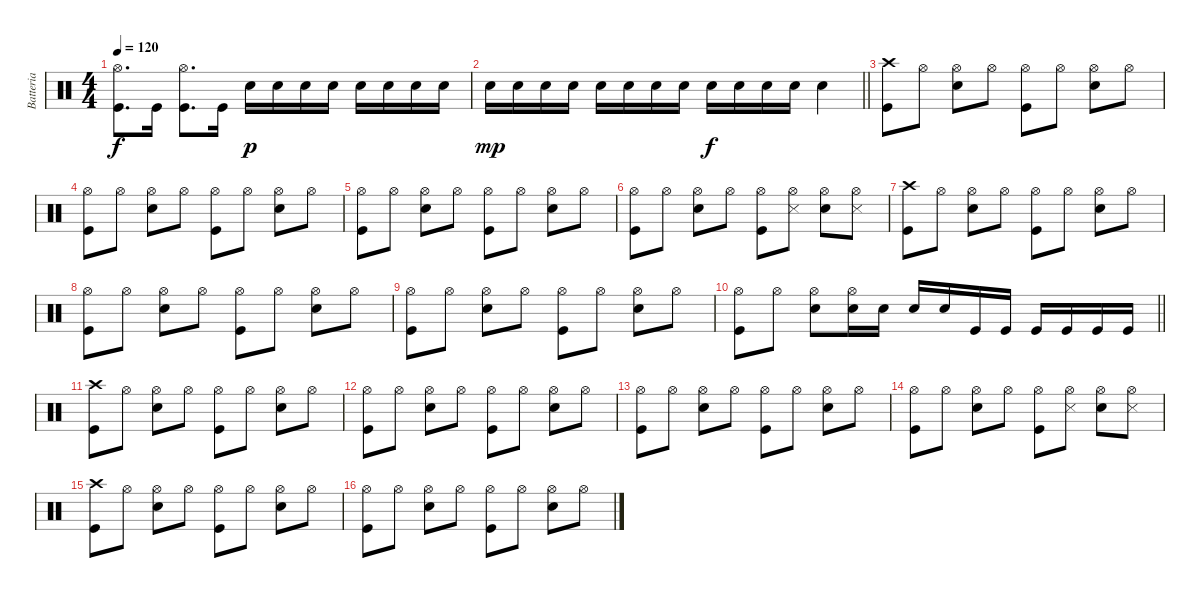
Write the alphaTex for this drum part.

\track ("Batteria" "Batteria") {instrument percussion}
\staff {score}
\articulation defaults
\ts (4 4)
\tempo 120
\clef neutral
\ks c
("Kick (hit)" "Hi-Hat (open)").8{d dy f} "Kick (hit)".16 ("Kick (hit)" "Hi-Hat (open)").8{d} "Kick (hit)".16 "Snare (hit) 2".16{dy p} "Snare (hit) 2".16 "Snare (hit) 2".16 "Snare (hit) 2".16 "Snare (hit) 2".16 "Snare (hit) 2".16 "Snare (hit) 2".16 "Snare (hit) 2".16 |
\barLineRight lightlight "Snare (hit) 2".16{dy mp} "Snare (hit) 2".16 "Snare (hit) 2".16 "Snare (hit) 2".16 "Snare (hit) 2".16 "Snare (hit) 2".16 "Snare (hit) 2".16 "Snare (hit) 2".16 "Snare (hit) 2".16{dy f} "Snare (hit) 2".16 "Snare (hit) 2".16 "Snare (hit) 2".16 "Snare (hit) 2".4
|
("Kick (hit)" "Crash high (hit)").8 "Hi-Hat (open)".8 ("Snare (hit) 2" "Hi-Hat (open)").8 "Hi-Hat (open)".8 ("Kick (hit)" "Hi-Hat (open)").8 "Hi-Hat (open)".8 ("Snare (hit) 2" "Hi-Hat (open)").8 "Hi-Hat (open)".8 |
("Kick (hit)" "Hi-Hat (open)").8 "Hi-Hat (open)".8 ("Snare (hit) 2" "Hi-Hat (open)").8 "Hi-Hat (open)".8 ("Kick (hit)" "Hi-Hat (open)").8 "Hi-Hat (open)".8 ("Snare (hit) 2" "Hi-Hat (open)").8 "Hi-Hat (open)".8 |
("Kick (hit)" "Hi-Hat (open)").8 "Hi-Hat (open)".8 ("Snare (hit) 2" "Hi-Hat (open)").8 "Hi-Hat (open)".8 ("Kick (hit)" "Hi-Hat (open)").8 "Hi-Hat (open)".8 ("Snare (hit) 2" "Hi-Hat (open)").8 "Hi-Hat (open)".8 |
("Kick (hit)" "Hi-Hat (open)").8 "Hi-Hat (open)".8 ("Snare (hit) 2" "Hi-Hat (open)").8 "Hi-Hat (open)".8 ("Kick (hit)" "Hi-Hat (open)").8 ("Hi-Hat (open)" "Snare (side stick) 3").8 ("Snare (hit) 2" "Hi-Hat (open)").8 ("Hi-Hat (open)" "Snare (side stick) 3").8 |
("Kick (hit)" "Crash high (hit)").8 "Hi-Hat (open)".8 ("Snare (hit) 2" "Hi-Hat (open)").8 "Hi-Hat (open)".8 ("Kick (hit)" "Hi-Hat (open)").8 "Hi-Hat (open)".8 ("Snare (hit) 2" "Hi-Hat (open)").8 "Hi-Hat (open)".8 |
("Kick (hit)" "Hi-Hat (open)").8 "Hi-Hat (open)".8 ("Snare (hit) 2" "Hi-Hat (open)").8 "Hi-Hat (open)".8 ("Kick (hit)" "Hi-Hat (open)").8 "Hi-Hat (open)".8 ("Snare (hit) 2" "Hi-Hat (open)").8 "Hi-Hat (open)".8 |
("Kick (hit)" "Hi-Hat (open)").8 "Hi-Hat (open)".8 ("Snare (hit) 2" "Hi-Hat (open)").8 "Hi-Hat (open)".8 ("Kick (hit)" "Hi-Hat (open)").8 "Hi-Hat (open)".8 ("Snare (hit) 2" "Hi-Hat (open)").8 "Hi-Hat (open)".8 |
\barLineRight lightlight
("Kick (hit)" "Hi-Hat (open)").8 "Hi-Hat (open)".8 ("Snare (hit) 2" "Hi-Hat (open)").8 ("Snare (hit) 2" "Hi-Hat (open)").16 "Snare (hit) 2".16 "Snare (hit) 2".16 "Snare (hit) 2".16 "Kick (hit)".16 "Kick (hit)".16 "Kick (hit)".16 "Kick (hit)".16 "Kick (hit)".16 "Kick (hit)".16 |
("Kick (hit)" "Crash high (hit)").8 "Hi-Hat (open)".8 ("Snare (hit) 2" "Hi-Hat (open)").8 "Hi-Hat (open)".8 ("Kick (hit)" "Hi-Hat (open)").8 "Hi-Hat (open)".8 ("Snare (hit) 2" "Hi-Hat (open)").8 "Hi-Hat (open)".8 |
("Kick (hit)" "Hi-Hat (open)").8 "Hi-Hat (open)".8 ("Snare (hit) 2" "Hi-Hat (open)").8 "Hi-Hat (open)".8 ("Kick (hit)" "Hi-Hat (open)").8 "Hi-Hat (open)".8 ("Snare (hit) 2" "Hi-Hat (open)").8 "Hi-Hat (open)".8 |
("Kick (hit)" "Hi-Hat (open)").8 "Hi-Hat (open)".8 ("Snare (hit) 2" "Hi-Hat (open)").8 "Hi-Hat (open)".8 ("Kick (hit)" "Hi-Hat (open)").8 "Hi-Hat (open)".8 ("Snare (hit) 2" "Hi-Hat (open)").8 "Hi-Hat (open)".8 |
("Kick (hit)" "Hi-Hat (open)").8 "Hi-Hat (open)".8 ("Snare (hit) 2" "Hi-Hat (open)").8 "Hi-Hat (open)".8 ("Kick (hit)" "Hi-Hat (open)").8 ("Hi-Hat (open)" "Snare (side stick) 3").8 ("Snare (hit) 2" "Hi-Hat (open)").8 ("Hi-Hat (open)" "Snare (side stick) 3").8 |
("Kick (hit)" "Crash high (hit)").8 "Hi-Hat (open)".8 ("Snare (hit) 2" "Hi-Hat (open)").8 "Hi-Hat (open)".8 ("Kick (hit)" "Hi-Hat (open)").8 "Hi-Hat (open)".8 ("Snare (hit) 2" "Hi-Hat (open)").8 "Hi-Hat (open)".8 |
("Kick (hit)" "Hi-Hat (open)").8 "Hi-Hat (open)".8 ("Snare (hit) 2" "Hi-Hat (open)").8 "Hi-Hat (open)".8 ("Kick (hit)" "Hi-Hat (open)").8 "Hi-Hat (open)".8 ("Snare (hit) 2" "Hi-Hat (open)").8 "Hi-Hat (open)".8
